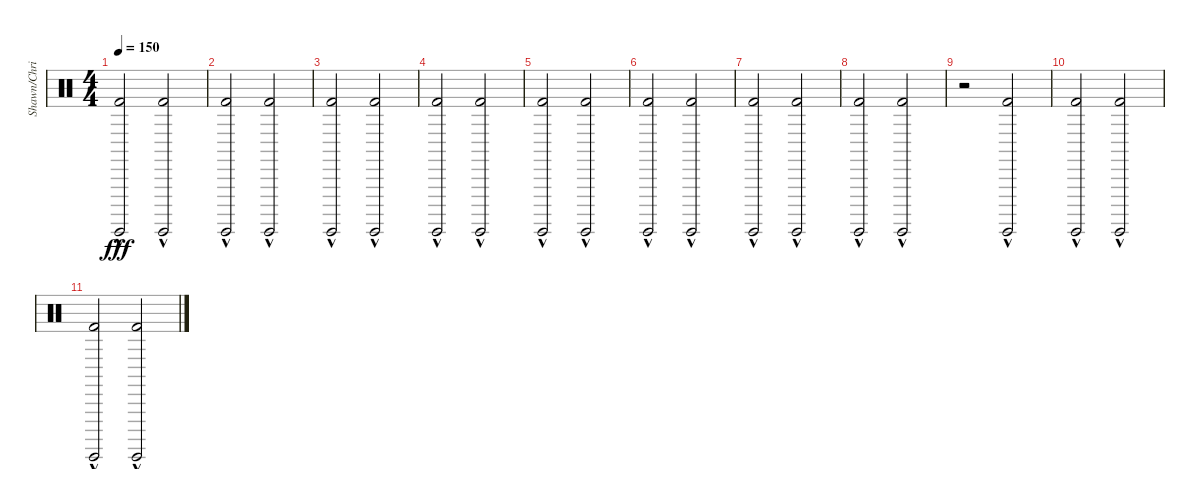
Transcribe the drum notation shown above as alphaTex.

\track ("Shawn/Chris" "Shawn/Chri") {instrument percussion}
\staff {score}
\articulation defaults
\ts (4 4)
\tempo 150
\clef neutral
\ks c
("Surdo (hit)"{hac} "Kick (hit) 2"{hac}).2{dy fff} ("Surdo (hit)"{hac} "Kick (hit) 2"{hac}).2 |
("Surdo (hit)"{hac} "Kick (hit) 2"{hac}).2 ("Surdo (hit)"{hac} "Kick (hit) 2"{hac}).2 |
("Surdo (hit)"{hac} "Kick (hit) 2"{hac}).2 ("Surdo (hit)"{hac} "Kick (hit) 2"{hac}).2 |
("Surdo (hit)"{hac} "Kick (hit) 2"{hac}).2 ("Surdo (hit)"{hac} "Kick (hit) 2"{hac}).2 |
("Surdo (hit)"{hac} "Kick (hit) 2"{hac}).2 ("Surdo (hit)"{hac} "Kick (hit) 2"{hac}).2 |
("Surdo (hit)"{hac} "Kick (hit) 2"{hac}).2 ("Surdo (hit)"{hac} "Kick (hit) 2"{hac}).2 |
("Surdo (hit)"{hac} "Kick (hit) 2"{hac}).2 ("Surdo (hit)"{hac} "Kick (hit) 2"{hac}).2 |
("Surdo (hit)"{hac} "Kick (hit) 2"{hac}).2 ("Surdo (hit)"{hac} "Kick (hit) 2"{hac}).2 |
r.2 ("Surdo (hit)"{hac} "Kick (hit) 2"{hac}).2 |
("Surdo (hit)"{hac} "Kick (hit) 2"{hac}).2 ("Surdo (hit)"{hac} "Kick (hit) 2"{hac}).2 |
("Surdo (hit)"{hac} "Kick (hit) 2"{hac}).2 ("Surdo (hit)"{hac} "Kick (hit) 2"{hac}).2
